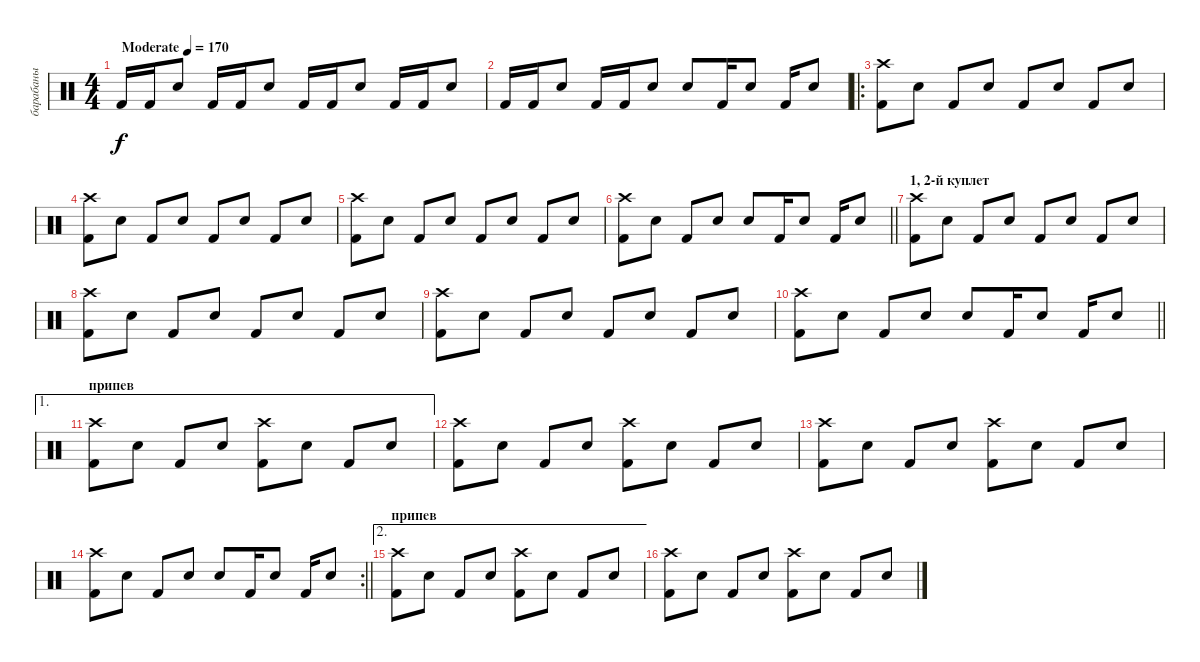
\track ("барабаны" "барабаны") {instrument percussion}
\staff {score}
\articulation defaults
\ts (4 4)
\tempo (170 "Moderate")
\clef neutral
\ks c "Kick (hit) 2".16{dy f} "Kick (hit) 2".16 "Snare (hit) 2".8 "Kick (hit) 2".16 "Kick (hit) 2".16 "Snare (hit) 2".8 "Kick (hit) 2".16 "Kick (hit) 2".16 "Snare (hit) 2".8 "Kick (hit) 2".16 "Kick (hit) 2".16 "Snare (hit) 2".8
|
"Kick (hit) 2".16 "Kick (hit) 2".16 "Snare (hit) 2".8 "Kick (hit) 2".16 "Kick (hit) 2".16 "Snare (hit) 2".8 "Snare (hit) 2".8 "Kick (hit) 2".16 "Snare (hit) 2".8 "Kick (hit) 2".16 "Snare (hit) 2".8 |
\ro
("Crash high (hit)" "Kick (hit) 2").8 "Snare (hit) 2".8 "Kick (hit) 2".8 "Snare (hit) 2".8 "Kick (hit) 2".8 "Snare (hit) 2".8 "Kick (hit) 2".8 "Snare (hit) 2".8 |
("Crash high (hit)" "Kick (hit) 2").8 "Snare (hit) 2".8 "Kick (hit) 2".8 "Snare (hit) 2".8 "Kick (hit) 2".8 "Snare (hit) 2".8 "Kick (hit) 2".8 "Snare (hit) 2".8 |
("Crash high (hit)" "Kick (hit) 2").8 "Snare (hit) 2".8 "Kick (hit) 2".8 "Snare (hit) 2".8 "Kick (hit) 2".8 "Snare (hit) 2".8 "Kick (hit) 2".8 "Snare (hit) 2".8 |
\barLineRight lightlight
("Crash high (hit)" "Kick (hit) 2").8 "Snare (hit) 2".8 "Kick (hit) 2".8 "Snare (hit) 2".8 "Snare (hit) 2".8 "Kick (hit) 2".16 "Snare (hit) 2".8 "Kick (hit) 2".16 "Snare (hit) 2".8 |
\section ("" "1, 2-й куплет")
("Crash high (hit)" "Kick (hit) 2").8 "Snare (hit) 2".8 "Kick (hit) 2".8 "Snare (hit) 2".8 "Kick (hit) 2".8 "Snare (hit) 2".8 "Kick (hit) 2".8 "Snare (hit) 2".8 |
("Crash high (hit)" "Kick (hit) 2").8 "Snare (hit) 2".8 "Kick (hit) 2".8 "Snare (hit) 2".8 "Kick (hit) 2".8 "Snare (hit) 2".8 "Kick (hit) 2".8 "Snare (hit) 2".8 |
("Crash high (hit)" "Kick (hit) 2").8 "Snare (hit) 2".8 "Kick (hit) 2".8 "Snare (hit) 2".8 "Kick (hit) 2".8 "Snare (hit) 2".8 "Kick (hit) 2".8 "Snare (hit) 2".8 |
\barLineRight lightlight
("Crash high (hit)" "Kick (hit) 2").8 "Snare (hit) 2".8 "Kick (hit) 2".8 "Snare (hit) 2".8 "Snare (hit) 2".8 "Kick (hit) 2".16 "Snare (hit) 2".8 "Kick (hit) 2".16 "Snare (hit) 2".8 |
\ae 1
\section ("" "припев")
("Crash high (hit)" "Kick (hit) 2").8 "Snare (hit) 2".8 "Kick (hit) 2".8 "Snare (hit) 2".8 ("Crash high (hit)" "Kick (hit) 2").8 "Snare (hit) 2".8 "Kick (hit) 2".8 "Snare (hit) 2".8 |
("Crash high (hit)" "Kick (hit) 2").8 "Snare (hit) 2".8 "Kick (hit) 2".8 "Snare (hit) 2".8 ("Crash high (hit)" "Kick (hit) 2").8 "Snare (hit) 2".8 "Kick (hit) 2".8 "Snare (hit) 2".8 |
("Crash high (hit)" "Kick (hit) 2").8 "Snare (hit) 2".8 "Kick (hit) 2".8 "Snare (hit) 2".8 ("Crash high (hit)" "Kick (hit) 2").8 "Snare (hit) 2".8 "Kick (hit) 2".8 "Snare (hit) 2".8 |
\rc 2
\barLineRight lightlight
("Crash high (hit)" "Kick (hit) 2").8 "Snare (hit) 2".8 "Kick (hit) 2".8 "Snare (hit) 2".8 "Snare (hit) 2".8 "Kick (hit) 2".16 "Snare (hit) 2".8 "Kick (hit) 2".16 "Snare (hit) 2".8 |
\ae 2
\section ("" "припев")
("Crash high (hit)" "Kick (hit) 2").8 "Snare (hit) 2".8 "Kick (hit) 2".8 "Snare (hit) 2".8 ("Crash high (hit)" "Kick (hit) 2").8 "Snare (hit) 2".8 "Kick (hit) 2".8 "Snare (hit) 2".8 |
("Crash high (hit)" "Kick (hit) 2").8 "Snare (hit) 2".8 "Kick (hit) 2".8 "Snare (hit) 2".8 ("Crash high (hit)" "Kick (hit) 2").8 "Snare (hit) 2".8 "Kick (hit) 2".8 "Snare (hit) 2".8
